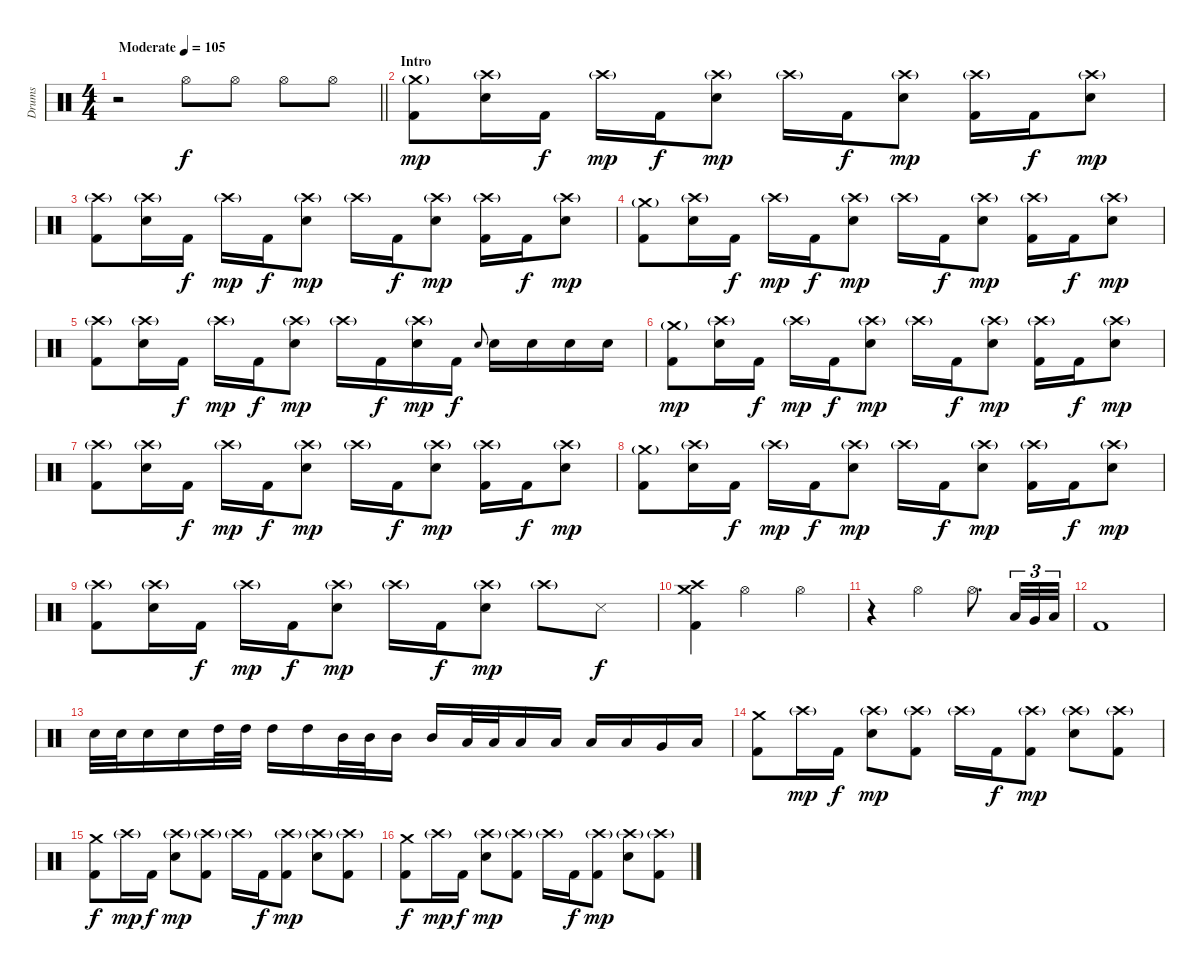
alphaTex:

\track ("Drums" "Drums") {instrument percussion}
\staff {score}
\articulation defaults
\ts (4 4)
\tempo (105 "Moderate")
\clef neutral
\barLineRight lightlight
\ks c
r.2{dy f} "Hi-Hat (open)".8 "Hi-Hat (open)".8 "Hi-Hat (open)".8 "Hi-Hat (open)".8 |
\section ("" "Intro")
("Crash medium (hit)"{g} "Kick (hit) 2").8{dy mp} ("Crash high (hit)"{g} "Snare (hit) 2").16 "Kick (hit) 2".16{dy f} "Crash high (hit)"{g}.16{dy mp} "Kick (hit) 2".16{dy f} ("Crash high (hit)"{g} "Snare (hit) 2").8{dy mp} "Crash high (hit)"{g}.16 "Kick (hit) 2".16{dy f} ("Crash high (hit)"{g} "Snare (hit) 2").8{dy mp} ("Crash high (hit)"{g} "Kick (hit) 2").16 "Kick (hit) 2".16{dy f} ("Crash high (hit)"{g} "Snare (hit) 2").8{dy mp} |
("Crash high (hit)"{g} "Kick (hit) 2").8 ("Crash high (hit)"{g} "Snare (hit) 2").16 "Kick (hit) 2".16{dy f} "Crash high (hit)"{g}.16{dy mp} "Kick (hit) 2".16{dy f} ("Crash high (hit)"{g} "Snare (hit) 2").8{dy mp} "Crash high (hit)"{g}.16 "Kick (hit) 2".16{dy f} ("Crash high (hit)"{g} "Snare (hit) 2").8{dy mp} ("Crash high (hit)"{g} "Kick (hit) 2").16 "Kick (hit) 2".16{dy f} ("Crash high (hit)"{g} "Snare (hit) 2").8{dy mp} |
("Crash medium (hit)"{g} "Kick (hit) 2").8 ("Crash high (hit)"{g} "Snare (hit) 2").16 "Kick (hit) 2".16{dy f} "Crash high (hit)"{g}.16{dy mp} "Kick (hit) 2".16{dy f} ("Crash high (hit)"{g} "Snare (hit) 2").8{dy mp} "Crash high (hit)"{g}.16 "Kick (hit) 2".16{dy f} ("Crash high (hit)"{g} "Snare (hit) 2").8{dy mp} ("Crash high (hit)"{g} "Kick (hit) 2").16 "Kick (hit) 2".16{dy f} ("Crash high (hit)"{g} "Snare (hit) 2").8{dy mp} |
("Crash high (hit)"{g} "Kick (hit) 2").8 ("Crash high (hit)"{g} "Snare (hit) 2").16 "Kick (hit) 2".16{dy f} "Crash high (hit)"{g}.16{dy mp} "Kick (hit) 2".16{dy f} ("Crash high (hit)"{g} "Snare (hit) 2").8{dy mp} "Crash high (hit)"{g}.16 "Kick (hit) 2".16{dy f} ("Crash high (hit)"{g} "Snare (hit) 2").16{dy mp} "Kick (hit) 2".16{dy f} "Snare (hit) 2".8{gr onbeat} "Snare (hit) 2".16 "Snare (hit) 2".16 "Snare (hit) 2".16 "Snare (hit) 2".16 |
("Crash medium (hit)"{g} "Kick (hit) 2").8{dy mp} ("Crash high (hit)"{g} "Snare (hit) 2").16 "Kick (hit) 2".16{dy f} "Crash high (hit)"{g}.16{dy mp} "Kick (hit) 2".16{dy f} ("Crash high (hit)"{g} "Snare (hit) 2").8{dy mp} "Crash high (hit)"{g}.16 "Kick (hit) 2".16{dy f} ("Crash high (hit)"{g} "Snare (hit) 2").8{dy mp} ("Crash high (hit)"{g} "Kick (hit) 2").16 "Kick (hit) 2".16{dy f} ("Crash high (hit)"{g} "Snare (hit) 2").8{dy mp} |
("Crash high (hit)"{g} "Kick (hit) 2").8 ("Crash high (hit)"{g} "Snare (hit) 2").16 "Kick (hit) 2".16{dy f} "Crash high (hit)"{g}.16{dy mp} "Kick (hit) 2".16{dy f} ("Crash high (hit)"{g} "Snare (hit) 2").8{dy mp} "Crash high (hit)"{g}.16 "Kick (hit) 2".16{dy f} ("Crash high (hit)"{g} "Snare (hit) 2").8{dy mp} ("Crash high (hit)"{g} "Kick (hit) 2").16 "Kick (hit) 2".16{dy f} ("Crash high (hit)"{g} "Snare (hit) 2").8{dy mp} |
("Crash medium (hit)"{g} "Kick (hit) 2").8 ("Crash high (hit)"{g} "Snare (hit) 2").16 "Kick (hit) 2".16{dy f} "Crash high (hit)"{g}.16{dy mp} "Kick (hit) 2".16{dy f} ("Crash high (hit)"{g} "Snare (hit) 2").8{dy mp} "Crash high (hit)"{g}.16 "Kick (hit) 2".16{dy f} ("Crash high (hit)"{g} "Snare (hit) 2").8{dy mp} ("Crash high (hit)"{g} "Kick (hit) 2").16 "Kick (hit) 2".16{dy f} ("Crash high (hit)"{g} "Snare (hit) 2").8{dy mp} |
("Crash high (hit)"{g} "Kick (hit) 2").8 ("Crash high (hit)"{g} "Snare (hit) 2").16 "Kick (hit) 2".16{dy f} "Crash high (hit)"{g}.16{dy mp} "Kick (hit) 2".16{dy f} ("Crash high (hit)"{g} "Snare (hit) 2").8{dy mp} "Crash high (hit)"{g}.16 "Kick (hit) 2".16{dy f} ("Crash high (hit)"{g} "Snare (hit) 2").8{dy mp} "Crash high (hit)"{g}.8 "Snare (side stick) 3".8{dy f} |
("Crash medium (hit)" "Crash high (hit)" "Kick (hit) 2").4 "Hi-Hat (open)".2 "Hi-Hat (open)".4 |
r.4 "Hi-Hat (open)".2 "Hi-Hat (open)".8{d} "Low Tom (hit)".32{tu (3 2)} "Very Low Tom (hit)".32{tu (3 2)} "Low Floor Tom (hit)".32{tu (3 2)} |
"Kick (hit) 2".1 |
"Snare (hit) 2".32 "Snare (hit) 2".32 "Snare (hit) 2".16 "Snare (hit) 2".16 "High Tom (hit)".32 "High Tom (hit)".32 "High Tom (hit)".16 "High Tom (hit)".16 "Mid Tom (hit)".32 "Mid Tom (hit)".32 "Mid Tom (hit)".16 "Mid Tom (hit)".16 "Low Tom (hit)".32 "Low Tom (hit)".32 "Low Tom (hit)".16 "Low Tom (hit)".16 "Low Tom (hit)".16 "Low Tom (hit)".16 "Very Low Tom (hit)".16 "Low Floor Tom (hit)".16 |
("Crash medium (hit)" "Kick (hit) 2").8 "Crash high (hit)"{g}.16{dy mp} "Kick (hit) 2".16{dy f} ("Crash high (hit)"{g} "Snare (hit) 2").8{dy mp} ("Crash high (hit)"{g} "Kick (hit) 2").8 "Crash high (hit)"{g}.16 "Kick (hit) 2".16{dy f} ("Crash high (hit)"{g} "Kick (hit) 2").8{dy mp} ("Crash high (hit)"{g} "Snare (hit) 2").8 ("Crash high (hit)"{g} "Kick (hit) 2").8 |
("Crash medium (hit)" "Kick (hit) 2").8{dy f} "Crash high (hit)"{g}.16{dy mp} "Kick (hit) 2".16{dy f} ("Crash high (hit)"{g} "Snare (hit) 2").8{dy mp} ("Crash high (hit)"{g} "Kick (hit) 2").8 "Crash high (hit)"{g}.16 "Kick (hit) 2".16{dy f} ("Crash high (hit)"{g} "Kick (hit) 2").8{dy mp} ("Crash high (hit)"{g} "Snare (hit) 2").8 ("Crash high (hit)"{g} "Kick (hit) 2").8 |
("Crash medium (hit)" "Kick (hit) 2").8{dy f} "Crash high (hit)"{g}.16{dy mp} "Kick (hit) 2".16{dy f} ("Crash high (hit)"{g} "Snare (hit) 2").8{dy mp} ("Crash high (hit)"{g} "Kick (hit) 2").8 "Crash high (hit)"{g}.16 "Kick (hit) 2".16{dy f} ("Crash high (hit)"{g} "Kick (hit) 2").8{dy mp} ("Crash high (hit)"{g} "Snare (hit) 2").8 ("Crash high (hit)"{g} "Kick (hit) 2").8
